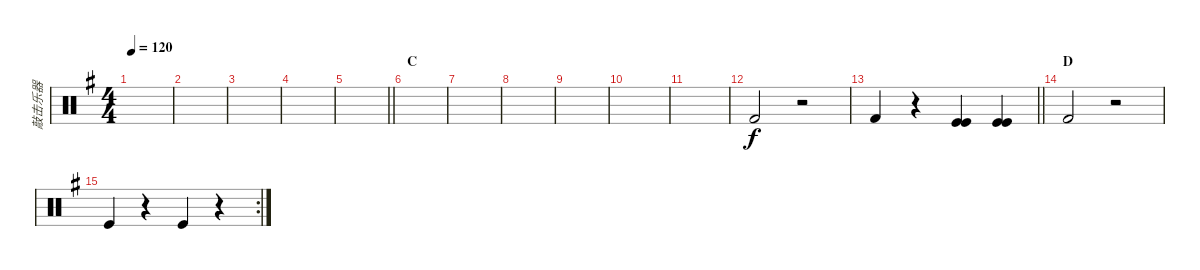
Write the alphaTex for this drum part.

\track ("敲击乐器" "敲击乐器") {instrument percussion}
\staff {score}
\articulation defaults
\ts (4 4)
\tempo 120
\clef neutral
\ks g
|
|
|
|
\barLineRight lightlight
|
\section ("" "C")
|
|
|
|
|
|
"Kick (hit) 2".2 r.2 |
\barLineRight lightlight "Kick (hit) 2".4
r.4 ("Kick (hit)" "Kick (hit)").4 ("Kick (hit)" "Kick (hit)").4 |
\section ("" "D")
"Kick (hit) 2".2 r.2 |
\rc 2 "Kick (hit)".4
r.4 "Kick (hit)".4 r.4
